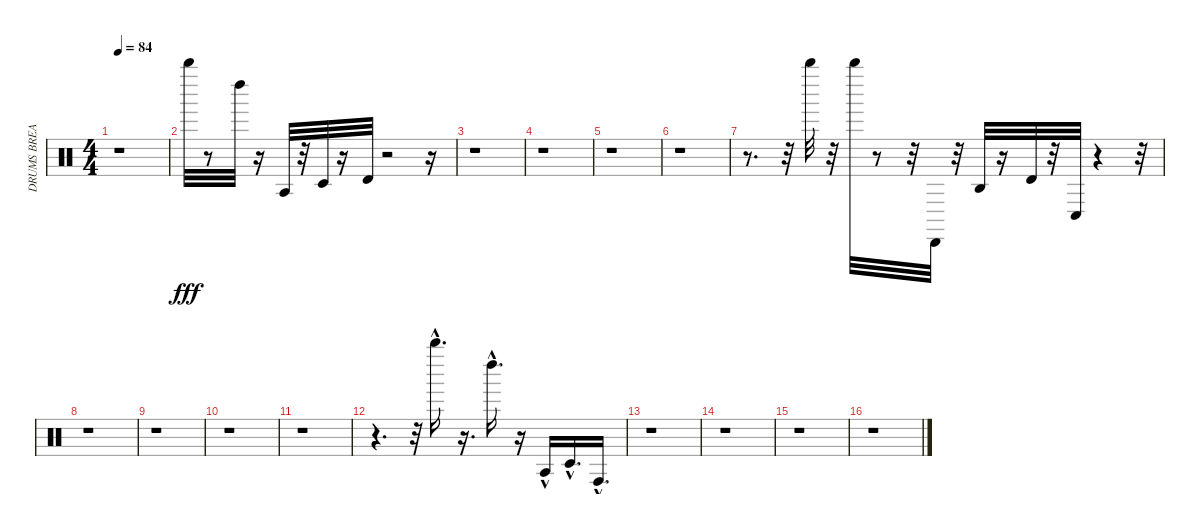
\track ("DRUMS BREAK" "DRUMS BREA") {instrument percussion}
\staff {score}
\articulation defaults
\ts (4 4)
\tempo 84
\clef neutral
\ks c
r.1{dy fff} |
"Whistle high (hit)".32 r.8 "Left Maraca (hit)".32 r.16 "Agogo tow (hit)".32 r.32 "Timbale low (hit)".32 r.16 "Timbale high (hit)".32 r.2 r.16 |
r.1 |
r.1 |
r.1 |
r.1 |
r.8{d} r.32 "Whistle high (hit)".32 r.32 "Whistle high (hit)".32 r.8 r.32 "Cabasa (hit)".32 r.32 "Agogo high (hit)".32 r.16 "Timbale high (hit)".32 r.32 "Conga low (hit)".32 r.4 r.32 |
r.1 |
r.1 |
r.1 |
r.1 |
r.4{d} r.32 "Whistle high (hit)"{hac}.16{d} r.16{d} "Left Maraca (hit)"{hac}.16{d} r.16 "Agogo tow (hit)"{hac}.16 "Timbale low (hit)"{hac}.16{d} "Conga high (hit)"{hac}.16{d} |
r.1 |
r.1 |
r.1 |
r.1
